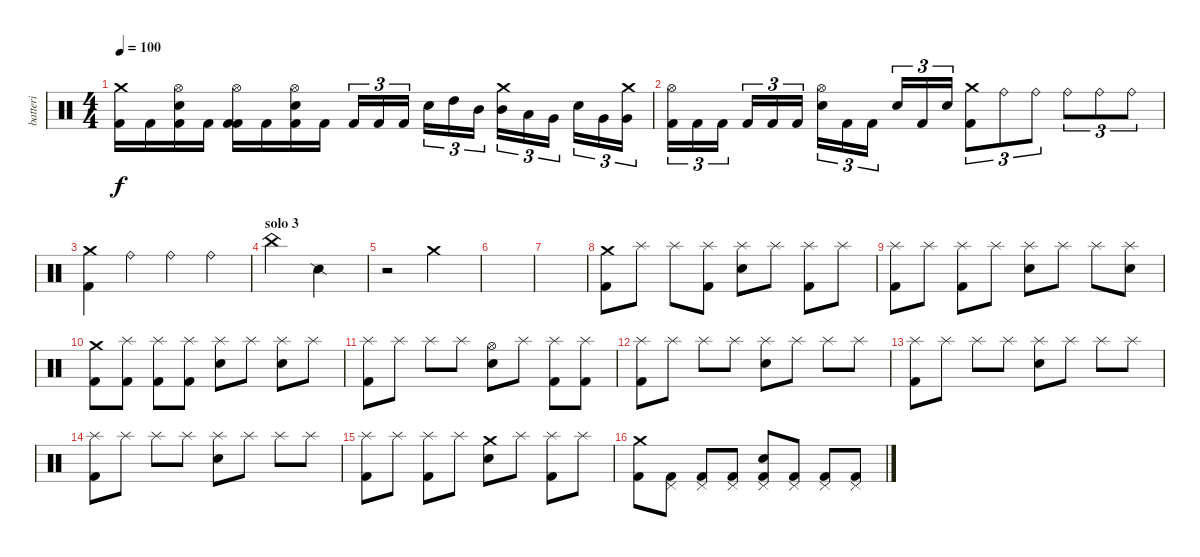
\track ("batteri" "batteri") {instrument percussion}
\staff {score}
\articulation defaults
\ts (4 4)
\tempo 100
\clef neutral
\ks c
("Crash medium (hit)" "Kick (hit) 2").16{dy f} "Kick (hit) 2".16 ("Hi-Hat (open)" "Electric Snare (hit)" "Kick (hit) 2").16 "Kick (hit) 2".16 ("Hi-Hat (open)" "Kick (hit) 2" "Kick (hit) 2").16 "Kick (hit) 2".16 ("Hi-Hat (open)" "Electric Snare (hit)" "Kick (hit) 2").16 "Kick (hit) 2".16 "Kick (hit) 2".16{tu (3 2)} "Kick (hit) 2".16{tu (3 2)} "Kick (hit) 2".16{tu (3 2)} "Electric Snare (hit)".16{tu (3 2)} "High Tom (hit)".16{tu (3 2)} "Mid Tom (hit)".16{tu (3 2)} ("Crash medium (hit)" "Mid Tom (hit)").16{tu (3 2)} "Low Tom (hit)".16{tu (3 2)} "Very Low Tom (hit)".16{tu (3 2)} "Electric Snare (hit)".16{tu (3 2)} "Very Low Tom (hit)".16{tu (3 2)} ("Crash medium (hit)" "Very Low Tom (hit)").16{tu (3 2)} |
("Hi-Hat (open)" "Kick (hit) 2").16{tu (3 2)} "Kick (hit) 2".16{tu (3 2)} "Kick (hit) 2".16{tu (3 2)} "Kick (hit) 2".16{tu (3 2)} "Kick (hit) 2".16{tu (3 2)} "Kick (hit) 2".16{tu (3 2)} ("Hi-Hat (open)" "Electric Snare (hit)").16{tu (3 2)} "Kick (hit) 2".16{tu (3 2)} "Kick (hit) 2".16{tu (3 2)} "Electric Snare (hit)".16{tu (3 2)} "Kick (hit) 2".16{tu (3 2)} "Electric Snare (hit)".16{tu (3 2)} ("Crash medium (hit)" "Kick (hit) 2").8{tu (3 2)} "Ride (bell)".8{tu (3 2)} "Ride (bell)".8{tu (3 2)} "Ride (bell)".8{tu (3 2)} "Ride (bell)".8{tu (3 2)} "Ride (bell)".8{tu (3 2)} |
("Kick (hit) 2" "Crash medium (hit)").4 "Ride (bell)".4 "Ride (bell)".4 "Ride (bell)".4 |
\section ("" "solo 3")
"China (hit)".2 "Snare (side stick) 2".2 |
r.2 "Crash medium (hit)".2 |
|
|
("Crash medium (hit)" "Kick (hit) 2").8 "Splash (hit)".8 "Splash (hit)".8 ("Splash (hit)" "Kick (hit) 2").8 ("Splash (hit)" "Electric Snare (hit)").8 "Splash (hit)".8 ("Splash (hit)" "Kick (hit) 2").8 "Splash (hit)".8 |
("Splash (hit)" "Kick (hit) 2").8 "Splash (hit)".8 ("Splash (hit)" "Kick (hit) 2").8 "Splash (hit)".8 ("Splash (hit)" "Electric Snare (hit)").8 "Splash (hit)".8 "Splash (hit)".8 ("Splash (hit)" "Electric Snare (hit)").8 |
("Crash medium (hit)" "Kick (hit) 2").8 ("Splash (hit)" "Kick (hit) 2").8 ("Splash (hit)" "Kick (hit) 2").8 ("Splash (hit)" "Kick (hit) 2").8 ("Splash (hit)" "Electric Snare (hit)").8 "Splash (hit)".8 ("Splash (hit)" "Electric Snare (hit)").8 "Splash (hit)".8 |
("Splash (hit)" "Kick (hit) 2").8 "Splash (hit)".8 "Splash (hit)".8 "Splash (hit)".8 ("Hi-Hat (open)" "Electric Snare (hit)").8 "Splash (hit)".8 ("Splash (hit)" "Kick (hit) 2").8 ("Splash (hit)" "Kick (hit) 2").8 |
("Splash (hit)" "Kick (hit) 2").8 "Splash (hit)".8 "Splash (hit)".8 "Splash (hit)".8 ("Splash (hit)" "Electric Snare (hit)").8 "Splash (hit)".8 "Splash (hit)".8 "Splash (hit)".8 |
("Splash (hit)" "Kick (hit) 2").8 "Splash (hit)".8 "Splash (hit)".8 "Splash (hit)".8 ("Splash (hit)" "Electric Snare (hit)").8 "Splash (hit)".8 "Splash (hit)".8 "Splash (hit)".8 |
("Splash (hit)" "Kick (hit) 2").8 "Splash (hit)".8 "Splash (hit)".8 "Splash (hit)".8 ("Splash (hit)" "Electric Snare (hit)").8 "Splash (hit)".8 "Splash (hit)".8 "Splash (hit)".8 |
("Splash (hit)" "Kick (hit) 2").8 "Splash (hit)".8 ("Splash (hit)" "Kick (hit) 2").8 "Splash (hit)".8 ("Crash medium (hit)" "Electric Snare (hit)").8 "Splash (hit)".8 ("Splash (hit)" "Kick (hit) 2").8 "Splash (hit)".8 |
("Crash medium (hit)" "Kick (hit) 2").8 ("Pedal Hi-Hat (hit)" "Kick (hit) 2").8 ("Pedal Hi-Hat (hit)" "Kick (hit) 2").8 ("Pedal Hi-Hat (hit)" "Kick (hit) 2").8 ("Pedal Hi-Hat (hit)" "Electric Snare (hit)" "Kick (hit) 2").8 ("Pedal Hi-Hat (hit)" "Kick (hit) 2").8 ("Pedal Hi-Hat (hit)" "Kick (hit) 2").8 ("Pedal Hi-Hat (hit)" "Kick (hit) 2").8
